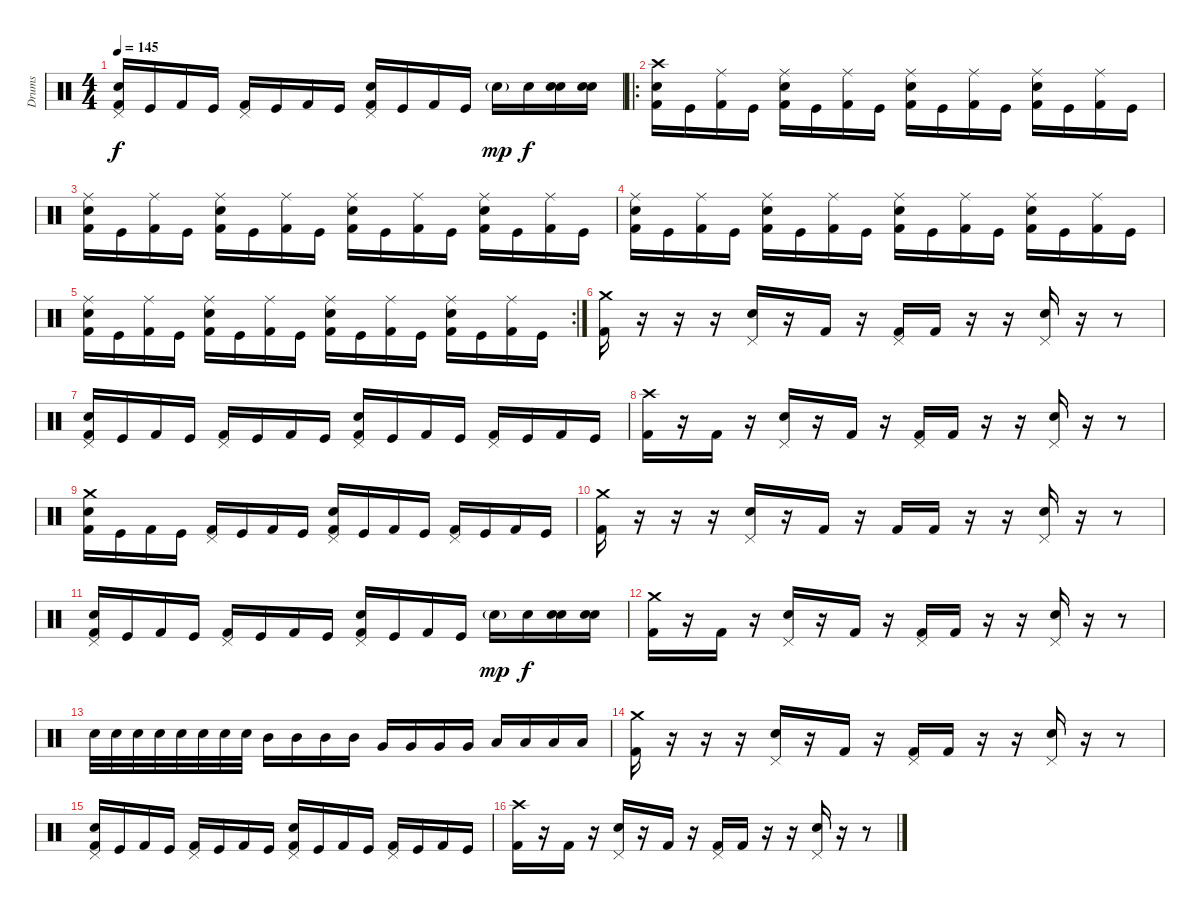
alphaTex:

\track ("Drums" "Drums") {instrument percussion}
\staff {score}
\articulation defaults
\ts (4 4)
\tempo 145
\clef neutral
\ks c
("Kick (hit) 2" "Electric Snare (hit)" "Pedal Hi-Hat (hit)").16{dy f} "Kick (hit)".16 "Kick (hit) 2".16 "Kick (hit)".16 ("Kick (hit) 2" "Pedal Hi-Hat (hit)").16 "Kick (hit)".16 "Kick (hit) 2".16 "Kick (hit)".16 ("Kick (hit) 2" "Electric Snare (hit)" "Pedal Hi-Hat (hit)").16 "Kick (hit)".16 "Kick (hit) 2".16 "Kick (hit)".16 "Electric Snare (hit)"{g}.16{dy mp} "Electric Snare (hit)".16{dy f} ("Electric Snare (hit)" "Electric Snare (hit)").16 ("Electric Snare (hit)" "Electric Snare (hit)").16 |
\ro
("Kick (hit) 2" "Electric Snare (hit)" "Crash high (hit)").16 "Kick (hit)".16 ("Kick (hit) 2" "Ride (middle)").16 "Kick (hit)".16 ("Kick (hit) 2" "Electric Snare (hit)" "Ride (middle)").16 "Kick (hit)".16 ("Kick (hit) 2" "Ride (middle)").16 "Kick (hit)".16 ("Kick (hit) 2" "Electric Snare (hit)" "Ride (middle)").16 "Kick (hit)".16 ("Kick (hit) 2" "Ride (middle)").16 "Kick (hit)".16 ("Kick (hit) 2" "Electric Snare (hit)" "Ride (middle)").16 "Kick (hit)".16 ("Kick (hit) 2" "Ride (middle)").16 "Kick (hit)".16 |
("Kick (hit) 2" "Electric Snare (hit)" "Ride (middle)").16 "Kick (hit)".16 ("Kick (hit) 2" "Ride (middle)").16 "Kick (hit)".16 ("Kick (hit) 2" "Electric Snare (hit)" "Ride (middle)").16 "Kick (hit)".16 ("Kick (hit) 2" "Ride (middle)").16 "Kick (hit)".16 ("Kick (hit) 2" "Electric Snare (hit)" "Ride (middle)").16 "Kick (hit)".16 ("Kick (hit) 2" "Ride (middle)").16 "Kick (hit)".16 ("Kick (hit) 2" "Electric Snare (hit)" "Ride (middle)").16 "Kick (hit)".16 ("Kick (hit) 2" "Ride (middle)").16 "Kick (hit)".16 |
("Kick (hit) 2" "Electric Snare (hit)" "Ride (middle)").16 "Kick (hit)".16 ("Kick (hit) 2" "Ride (middle)").16 "Kick (hit)".16 ("Kick (hit) 2" "Electric Snare (hit)" "Ride (middle)").16 "Kick (hit)".16 ("Kick (hit) 2" "Ride (middle)").16 "Kick (hit)".16 ("Kick (hit) 2" "Electric Snare (hit)" "Ride (middle)").16 "Kick (hit)".16 ("Kick (hit) 2" "Ride (middle)").16 "Kick (hit)".16 ("Kick (hit) 2" "Electric Snare (hit)" "Ride (middle)").16 "Kick (hit)".16 ("Kick (hit) 2" "Ride (middle)").16 "Kick (hit)".16 |
\rc 2
("Kick (hit) 2" "Electric Snare (hit)" "Ride (middle)").16 "Kick (hit)".16 ("Kick (hit) 2" "Ride (middle)").16 "Kick (hit)".16 ("Kick (hit) 2" "Electric Snare (hit)" "Ride (middle)").16 "Kick (hit)".16 ("Kick (hit) 2" "Ride (middle)").16 "Kick (hit)".16 ("Kick (hit) 2" "Electric Snare (hit)" "Ride (middle)").16 "Kick (hit)".16 ("Kick (hit) 2" "Ride (middle)").16 "Kick (hit)".16 ("Kick (hit) 2" "Electric Snare (hit)" "Ride (middle)").16 "Kick (hit)".16 ("Kick (hit) 2" "Ride (middle)").16 "Kick (hit)".16 |
("Kick (hit) 2" "Crash medium (hit)").16 r.16 r.16 r.16 ("Electric Snare (hit)" "Pedal Hi-Hat (hit)").16 r.16 "Kick (hit) 2".16 r.16 ("Kick (hit) 2" "Pedal Hi-Hat (hit)").16 "Kick (hit) 2".16 r.16 r.16 ("Electric Snare (hit)" "Pedal Hi-Hat (hit)").16 r.16 r.8 |
("Kick (hit) 2" "Electric Snare (hit)" "Pedal Hi-Hat (hit)").16 "Kick (hit)".16 "Kick (hit) 2".16 "Kick (hit)".16 ("Kick (hit) 2" "Pedal Hi-Hat (hit)").16 "Kick (hit)".16 "Kick (hit) 2".16 "Kick (hit)".16 ("Kick (hit) 2" "Electric Snare (hit)" "Pedal Hi-Hat (hit)").16 "Kick (hit)".16 "Kick (hit) 2".16 "Kick (hit)".16 ("Kick (hit) 2" "Pedal Hi-Hat (hit)").16 "Kick (hit)".16 "Kick (hit) 2".16 "Kick (hit)".16 |
("Kick (hit) 2" "Crash high (hit)").16 r.16 "Kick (hit) 2".16 r.16 ("Electric Snare (hit)" "Pedal Hi-Hat (hit)").16 r.16 "Kick (hit) 2".16 r.16 ("Kick (hit) 2" "Pedal Hi-Hat (hit)").16 "Kick (hit) 2".16 r.16 r.16 ("Electric Snare (hit)" "Pedal Hi-Hat (hit)").16 r.16 r.8 |
("Kick (hit) 2" "Electric Snare (hit)" "Crash medium (hit)").16 "Kick (hit)".16 "Kick (hit) 2".16 "Kick (hit)".16 ("Kick (hit) 2" "Pedal Hi-Hat (hit)").16 "Kick (hit)".16 "Kick (hit) 2".16 "Kick (hit)".16 ("Kick (hit) 2" "Electric Snare (hit)" "Pedal Hi-Hat (hit)").16 "Kick (hit)".16 "Kick (hit) 2".16 "Kick (hit)".16 ("Kick (hit) 2" "Pedal Hi-Hat (hit)").16 "Kick (hit)".16 "Kick (hit) 2".16 "Kick (hit)".16 |
("Kick (hit) 2" "Crash medium (hit)").16 r.16 r.16 r.16 ("Electric Snare (hit)" "Pedal Hi-Hat (hit)").16 r.16 "Kick (hit) 2".16 r.16 "Kick (hit) 2".16 "Kick (hit) 2".16 r.16 r.16 ("Electric Snare (hit)" "Pedal Hi-Hat (hit)").16 r.16 r.8 |
("Kick (hit) 2" "Electric Snare (hit)" "Pedal Hi-Hat (hit)").16 "Kick (hit)".16 "Kick (hit) 2".16 "Kick (hit)".16 ("Kick (hit) 2" "Pedal Hi-Hat (hit)").16 "Kick (hit)".16 "Kick (hit) 2".16 "Kick (hit)".16 ("Kick (hit) 2" "Electric Snare (hit)" "Pedal Hi-Hat (hit)").16 "Kick (hit)".16 "Kick (hit) 2".16 "Kick (hit)".16 "Electric Snare (hit)"{g}.16{dy mp} "Electric Snare (hit)".16{dy f} ("Electric Snare (hit)" "Electric Snare (hit)").16 ("Electric Snare (hit)" "Electric Snare (hit)").16 |
("Kick (hit) 2" "Crash medium (hit)").16 r.16 "Kick (hit) 2".16 r.16 ("Electric Snare (hit)" "Pedal Hi-Hat (hit)").16 r.16 "Kick (hit) 2".16 r.16 ("Kick (hit) 2" "Pedal Hi-Hat (hit)").16 "Kick (hit) 2".16 r.16 r.16 ("Electric Snare (hit)" "Pedal Hi-Hat (hit)").16 r.16 r.8 |
"Electric Snare (hit)".32 "Electric Snare (hit)".32 "Electric Snare (hit)".32 "Electric Snare (hit)".32 "Electric Snare (hit)".32 "Electric Snare (hit)".32 "Electric Snare (hit)".32 "Electric Snare (hit)".32 "Mid Tom (hit)".16 "Mid Tom (hit)".16 "Mid Tom (hit)".16 "Mid Tom (hit)".16 "Very Low Tom (hit)".16 "Very Low Tom (hit)".16 "Very Low Tom (hit)".16 "Very Low Tom (hit)".16 "Low Tom (hit)".16 "Low Tom (hit)".16 "Low Tom (hit)".16 "Low Tom (hit)".16 |
("Kick (hit) 2" "Crash medium (hit)").16 r.16 r.16 r.16 ("Electric Snare (hit)" "Pedal Hi-Hat (hit)").16 r.16 "Kick (hit) 2".16 r.16 ("Kick (hit) 2" "Pedal Hi-Hat (hit)").16 "Kick (hit) 2".16 r.16 r.16 ("Electric Snare (hit)" "Pedal Hi-Hat (hit)").16 r.16 r.8 |
("Kick (hit) 2" "Electric Snare (hit)" "Pedal Hi-Hat (hit)").16 "Kick (hit)".16 "Kick (hit) 2".16 "Kick (hit)".16 ("Kick (hit) 2" "Pedal Hi-Hat (hit)").16 "Kick (hit)".16 "Kick (hit) 2".16 "Kick (hit)".16 ("Kick (hit) 2" "Electric Snare (hit)" "Pedal Hi-Hat (hit)").16 "Kick (hit)".16 "Kick (hit) 2".16 "Kick (hit)".16 ("Kick (hit) 2" "Pedal Hi-Hat (hit)").16 "Kick (hit)".16 "Kick (hit) 2".16 "Kick (hit)".16 |
("Kick (hit) 2" "Crash high (hit)").16 r.16 "Kick (hit) 2".16 r.16 ("Electric Snare (hit)" "Pedal Hi-Hat (hit)").16 r.16 "Kick (hit) 2".16 r.16 ("Kick (hit) 2" "Pedal Hi-Hat (hit)").16 "Kick (hit) 2".16 r.16 r.16 ("Electric Snare (hit)" "Pedal Hi-Hat (hit)").16 r.16 r.8
